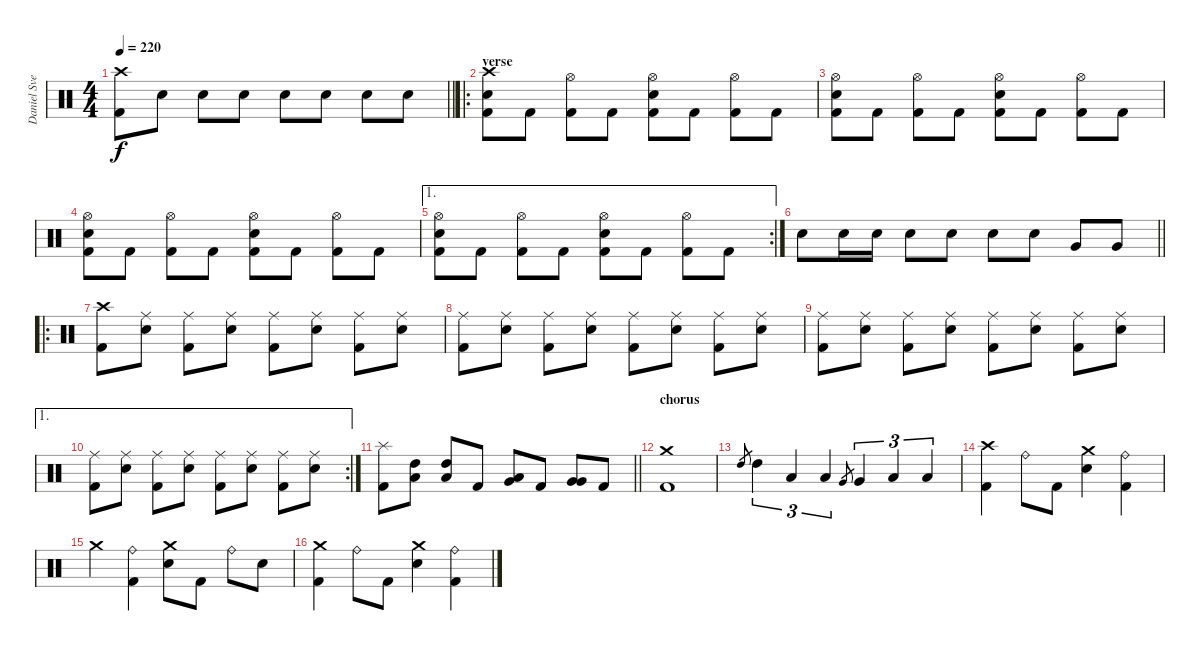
\track ("Daniel Svensson" "Daniel Sve") {instrument percussion}
\staff {score}
\articulation defaults
\ts (4 4)
\tempo 220
\clef neutral
\barLineRight lightlight
\ks c
("Crash high (hit)" "Kick (hit) 2").8{dy f} "Electric Snare (hit)".8 "Electric Snare (hit)".8 "Electric Snare (hit)".8 "Electric Snare (hit)".8 "Electric Snare (hit)".8 "Electric Snare (hit)".8 "Electric Snare (hit)".8 |
\ro
\section ("" "verse")
("Crash high (hit)" "Electric Snare (hit)" "Kick (hit) 2").8 "Kick (hit) 2".8 ("Hi-Hat (open)" "Kick (hit) 2").8 "Kick (hit) 2".8 ("Hi-Hat (open)" "Electric Snare (hit)" "Kick (hit) 2").8 "Kick (hit) 2".8 ("Hi-Hat (open)" "Kick (hit) 2").8 "Kick (hit) 2".8 |
("Hi-Hat (open)" "Electric Snare (hit)" "Kick (hit) 2").8 "Kick (hit) 2".8 ("Hi-Hat (open)" "Kick (hit) 2").8 "Kick (hit) 2".8 ("Hi-Hat (open)" "Electric Snare (hit)" "Kick (hit) 2").8 "Kick (hit) 2".8 ("Hi-Hat (open)" "Kick (hit) 2").8 "Kick (hit) 2".8 |
("Hi-Hat (open)" "Electric Snare (hit)" "Kick (hit) 2").8 "Kick (hit) 2".8 ("Hi-Hat (open)" "Kick (hit) 2").8 "Kick (hit) 2".8 ("Hi-Hat (open)" "Electric Snare (hit)" "Kick (hit) 2").8 "Kick (hit) 2".8 ("Hi-Hat (open)" "Kick (hit) 2").8 "Kick (hit) 2".8 |
\ae 1
\rc 2
("Hi-Hat (open)" "Electric Snare (hit)" "Kick (hit) 2").8 "Kick (hit) 2".8 ("Hi-Hat (open)" "Kick (hit) 2").8 "Kick (hit) 2".8 ("Hi-Hat (open)" "Electric Snare (hit)" "Kick (hit) 2").8 "Kick (hit) 2".8 ("Hi-Hat (open)" "Kick (hit) 2").8 "Kick (hit) 2".8 |
\barLineRight lightlight "Electric Snare (hit)".8 "Electric Snare (hit)".16 "Electric Snare (hit)".16 "Electric Snare (hit)".8 "Electric Snare (hit)".8 "Electric Snare (hit)".8 "Electric Snare (hit)".8 "Very Low Tom (hit)".8 "Very Low Tom (hit)".8
|
\ro
\section ("" "")
("Crash high (hit)" "Kick (hit) 2").8 ("Ride (middle)" "Electric Snare (hit)").8 ("Ride (middle)" "Kick (hit) 2").8 ("Ride (middle)" "Electric Snare (hit)").8 ("Ride (middle)" "Kick (hit) 2").8 ("Ride (middle)" "Electric Snare (hit)").8 ("Ride (middle)" "Kick (hit) 2").8 ("Ride (middle)" "Electric Snare (hit)").8 |
("Ride (middle)" "Kick (hit) 2").8 ("Ride (middle)" "Electric Snare (hit)").8 ("Ride (middle)" "Kick (hit) 2").8 ("Ride (middle)" "Electric Snare (hit)").8 ("Ride (middle)" "Kick (hit) 2").8 ("Ride (middle)" "Electric Snare (hit)").8 ("Ride (middle)" "Kick (hit) 2").8 ("Ride (middle)" "Electric Snare (hit)").8 |
("Ride (middle)" "Kick (hit) 2").8 ("Ride (middle)" "Electric Snare (hit)").8 ("Ride (middle)" "Kick (hit) 2").8 ("Ride (middle)" "Electric Snare (hit)").8 ("Ride (middle)" "Kick (hit) 2").8 ("Ride (middle)" "Electric Snare (hit)").8 ("Ride (middle)" "Kick (hit) 2").8 ("Ride (middle)" "Electric Snare (hit)").8 |
\ae 1
\rc 2
("Ride (middle)" "Kick (hit) 2").8 ("Ride (middle)" "Electric Snare (hit)").8 ("Ride (middle)" "Kick (hit) 2").8 ("Ride (middle)" "Electric Snare (hit)").8 ("Ride (middle)" "Kick (hit) 2").8 ("Ride (middle)" "Electric Snare (hit)").8 ("Ride (middle)" "Kick (hit) 2").8 ("Ride (middle)" "Electric Snare (hit)").8 |
\barLineRight lightlight
("Splash (hit)" "Kick (hit) 2").8 ("High Tom (hit)" "Low Tom (hit)").8 ("High Tom (hit)" "Low Tom (hit)").8 "Kick (hit) 2".8 ("Very Low Tom (hit)" "Low Tom (hit)").8 "Kick (hit) 2".8 ("Very Low Tom (hit)" "Very Low Tom (hit)").8 "Kick (hit) 2".8 |
\section ("" "chorus")
("Crash medium (hit)" "Kick (hit) 2").1 |
"High Tom (hit)".8{gr} "High Tom (hit)".4{tu (3 2)} "Low Tom (hit)".4{tu (3 2)} "Low Tom (hit)".4{tu (3 2)} "Very Low Tom (hit)".8{gr} "Very Low Tom (hit)".4{tu (3 2)} "Low Floor Tom (hit)".4{tu (3 2)} "Low Floor Tom (hit)".4{tu (3 2)} |
("Crash high (hit)" "Kick (hit) 2").4 "Ride (bell)".8 "Kick (hit) 2".8 ("Crash medium (hit)" "Electric Snare (hit)").4 ("Ride (bell)" "Kick (hit) 2").4 |
"Crash medium (hit)".4 ("Ride (bell)" "Kick (hit) 2").4 ("Crash medium (hit)" "Electric Snare (hit)").8 "Kick (hit) 2".8 "Ride (bell)".8 "Electric Snare (hit)".8 |
("Crash medium (hit)" "Kick (hit) 2").4 "Ride (bell)".8 "Kick (hit) 2".8 ("Crash medium (hit)" "Electric Snare (hit)").4 ("Ride (bell)" "Kick (hit) 2").4
